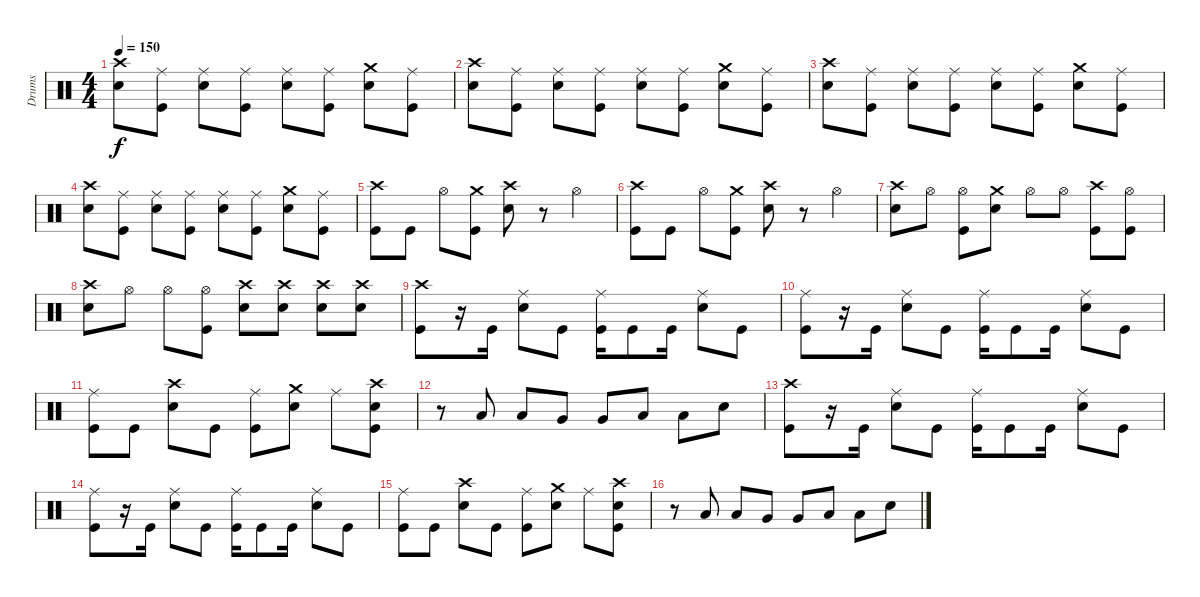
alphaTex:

\track ("Drums" "Drums") {instrument percussion}
\staff {score}
\articulation defaults
\ts (4 4)
\tempo 150
\clef neutral
\ks c
("Crash high (hit)" "Electric Snare (hit)").8{dy f} ("Ride (middle)" "Kick (hit)").8 ("Electric Snare (hit)" "Ride (middle)").8 ("Ride (middle)" "Kick (hit)").8 ("Ride (middle)" "Electric Snare (hit)").8 ("Ride (middle)" "Kick (hit)").8 ("Crash medium (hit)" "Electric Snare (hit)").8 ("Ride (middle)" "Kick (hit)").8 |
("Crash high (hit)" "Electric Snare (hit)").8 ("Kick (hit)" "Ride (middle)").8 ("Ride (middle)" "Electric Snare (hit)").8 ("Kick (hit)" "Ride (middle)").8 ("Ride (middle)" "Electric Snare (hit)").8 ("Kick (hit)" "Ride (middle)").8 ("Crash medium (hit)" "Electric Snare (hit)").8 ("Ride (middle)" "Kick (hit)").8 |
("Electric Snare (hit)" "Crash high (hit)").8 ("Ride (middle)" "Kick (hit)").8 ("Electric Snare (hit)" "Ride (middle)").8 ("Ride (middle)" "Kick (hit)").8 ("Ride (middle)" "Electric Snare (hit)").8 ("Ride (middle)" "Kick (hit)").8 ("Crash medium (hit)" "Electric Snare (hit)").8 ("Kick (hit)" "Ride (middle)").8 |
("Crash high (hit)" "Electric Snare (hit)").8 ("Kick (hit)" "Ride (middle)").8 ("Ride (middle)" "Electric Snare (hit)").8 ("Ride (middle)" "Kick (hit)").8 ("Electric Snare (hit)" "Ride (middle)").8 ("Ride (middle)" "Kick (hit)").8 ("Electric Snare (hit)" "Crash medium (hit)").8 ("Kick (hit)" "Ride (middle)").8 |
("Kick (hit)" "Crash high (hit)").8 "Kick (hit)".8 "Hi-Hat (open)".8 ("Crash medium (hit)" "Kick (hit)").8 ("Crash high (hit)" "Electric Snare (hit)").8 r.8 "Hi-Hat (open)".4 |
("Crash high (hit)" "Kick (hit)").8 "Kick (hit)".8 "Hi-Hat (open)".8 ("Kick (hit)" "Crash medium (hit)").8 ("Crash high (hit)" "Electric Snare (hit)").8 r.8 "Hi-Hat (open)".4 |
("Crash high (hit)" "Electric Snare (hit)").8 "Hi-Hat (open)".8 ("Kick (hit)" "Hi-Hat (open)").8 ("Crash medium (hit)" "Electric Snare (hit)").8 "Hi-Hat (open)".8 "Hi-Hat (open)".8 ("Kick (hit)" "Crash high (hit)").8 ("Hi-Hat (open)" "Kick (hit)").8 |
("Electric Snare (hit)" "Crash high (hit)").8 "Hi-Hat (open)".8 "Hi-Hat (open)".8 ("Hi-Hat (open)" "Kick (hit)").8 ("Crash high (hit)" "Electric Snare (hit)").8 ("Crash high (hit)" "Electric Snare (hit)").8 ("Electric Snare (hit)" "Crash high (hit)").8 ("Electric Snare (hit)" "Crash high (hit)").8 |
("Crash high (hit)" "Kick (hit)").8 r.16 "Kick (hit)".16 ("Ride (middle)" "Electric Snare (hit)").8 "Kick (hit)".8 ("Ride (middle)" "Kick (hit)").16 "Kick (hit)".8 "Kick (hit)".16 ("Ride (middle)" "Electric Snare (hit)").8 "Kick (hit)".8 |
("Kick (hit)" "Ride (middle)").8 r.16 "Kick (hit)".16 ("Ride (middle)" "Electric Snare (hit)").8 "Kick (hit)".8 ("Ride (middle)" "Kick (hit)").16 "Kick (hit)".8 "Kick (hit)".16 ("Ride (middle)" "Electric Snare (hit)").8 "Kick (hit)".8 |
("Ride (middle)" "Kick (hit)").8 "Kick (hit)".8 ("Crash high (hit)" "Electric Snare (hit)").8 "Kick (hit)".8 ("Ride (middle)" "Kick (hit)").8 ("Electric Snare (hit)" "Crash medium (hit)").8 "Ride (middle)".8 ("Crash high (hit)" "Electric Snare (hit)" "Kick (hit)").8 |
r.8 "Low Tom (hit)".8 "Low Tom (hit)".8 "Very Low Tom (hit)".8 "Very Low Tom (hit)".8 "Low Floor Tom (hit)".8 "Low Floor Tom (hit)".8 "Electric Snare (hit)".8 |
("Crash high (hit)" "Kick (hit)").8 r.16 "Kick (hit)".16 ("Ride (middle)" "Electric Snare (hit)").8 "Kick (hit)".8 ("Ride (middle)" "Kick (hit)").16 "Kick (hit)".8 "Kick (hit)".16 ("Ride (middle)" "Electric Snare (hit)").8 "Kick (hit)".8 |
("Kick (hit)" "Ride (middle)").8 r.16 "Kick (hit)".16 ("Ride (middle)" "Electric Snare (hit)").8 "Kick (hit)".8 ("Ride (middle)" "Kick (hit)").16 "Kick (hit)".8 "Kick (hit)".16 ("Ride (middle)" "Electric Snare (hit)").8 "Kick (hit)".8 |
("Ride (middle)" "Kick (hit)").8 "Kick (hit)".8 ("Crash high (hit)" "Electric Snare (hit)").8 "Kick (hit)".8 ("Ride (middle)" "Kick (hit)").8 ("Electric Snare (hit)" "Crash medium (hit)").8 "Ride (middle)".8 ("Crash high (hit)" "Electric Snare (hit)" "Kick (hit)").8 |
r.8 "Low Tom (hit)".8 "Low Tom (hit)".8 "Very Low Tom (hit)".8 "Very Low Tom (hit)".8 "Low Floor Tom (hit)".8 "Low Floor Tom (hit)".8 "Electric Snare (hit)".8
